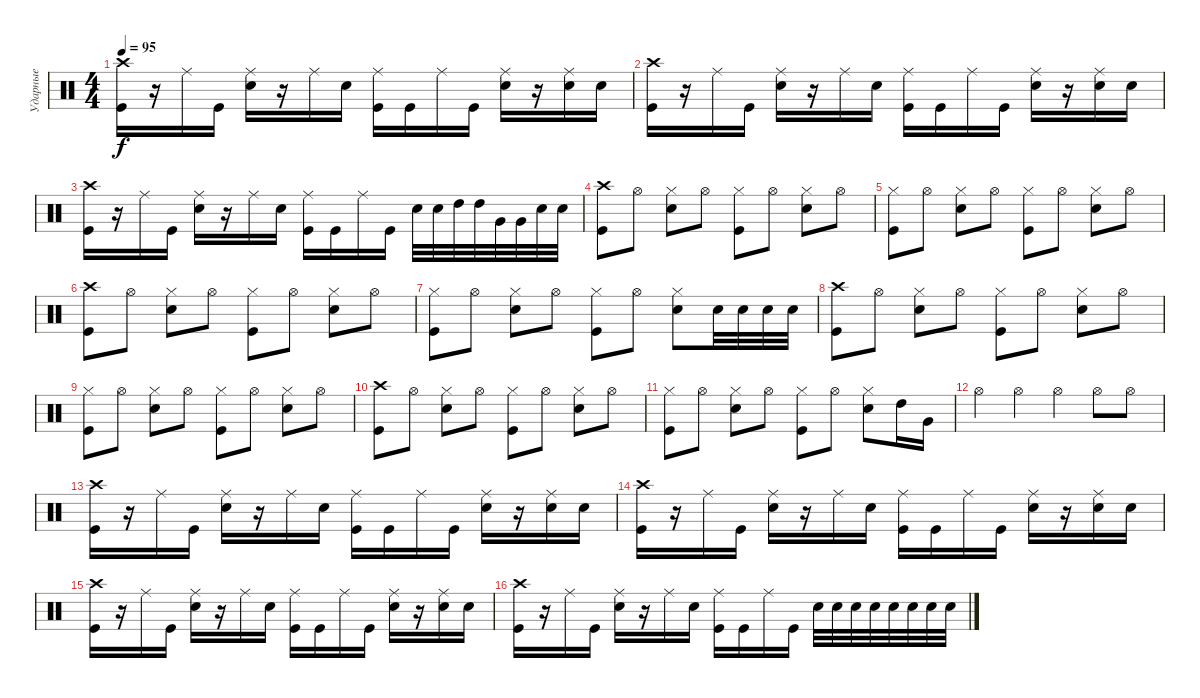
\track ("Ударные" "Ударные") {instrument percussion}
\staff {score}
\articulation defaults
\ts (4 4)
\tempo 95
\clef neutral
\ks c
("Kick (hit)" "Crash high (hit)").16{dy f} r.16 "Ride (middle)".16 "Kick (hit)".16 ("Ride (middle)" "Snare (hit) 2").16 r.16 "Ride (middle)".16 "Snare (hit) 2".16 ("Ride (middle)" "Kick (hit)").16 "Kick (hit)".16 "Ride (middle)".16 "Kick (hit)".16 ("Ride (middle)" "Snare (hit) 2").16 r.16 ("Ride (middle)" "Snare (hit) 2").16 "Snare (hit) 2".16 |
("Kick (hit)" "Crash high (hit)").16 r.16 "Ride (middle)".16 "Kick (hit)".16 ("Ride (middle)" "Snare (hit) 2").16 r.16 "Ride (middle)".16 "Snare (hit) 2".16 ("Ride (middle)" "Kick (hit)").16 "Kick (hit)".16 "Ride (middle)".16 "Kick (hit)".16 ("Ride (middle)" "Snare (hit) 2").16 r.16 ("Ride (middle)" "Snare (hit) 2").16 "Snare (hit) 2".16 |
("Kick (hit)" "Crash high (hit)").16 r.16 "Ride (middle)".16 "Kick (hit)".16 ("Ride (middle)" "Snare (hit) 2").16 r.16 "Ride (middle)".16 "Snare (hit) 2".16 ("Ride (middle)" "Kick (hit)").16 "Kick (hit)".16 "Ride (middle)".16 "Kick (hit)".16 "Snare (hit) 2".32 "Snare (hit) 2".32 "High Tom (hit)".32 "High Tom (hit)".32 "Very Low Tom (hit)".32 "Very Low Tom (hit)".32 "Snare (hit) 2".32 "Snare (hit) 2".32 |
("Kick (hit)" "Crash high (hit)").8 "Hi-Hat (open)".8 ("Snare (hit) 2" "Hi-Hat (closed)").8 "Hi-Hat (open)".8 ("Kick (hit)" "Hi-Hat (closed)").8 "Hi-Hat (open)".8 ("Snare (hit) 2" "Hi-Hat (closed)").8 "Hi-Hat (open)".8 |
("Kick (hit)" "Hi-Hat (closed)").8 "Hi-Hat (open)".8 ("Snare (hit) 2" "Hi-Hat (closed)").8 "Hi-Hat (open)".8 ("Kick (hit)" "Hi-Hat (closed)").8 "Hi-Hat (open)".8 ("Snare (hit) 2" "Hi-Hat (closed)").8 "Hi-Hat (open)".8 |
("Kick (hit)" "Crash high (hit)").8 "Hi-Hat (open)".8 ("Snare (hit) 2" "Hi-Hat (closed)").8 "Hi-Hat (open)".8 ("Kick (hit)" "Hi-Hat (closed)").8 "Hi-Hat (open)".8 ("Snare (hit) 2" "Hi-Hat (closed)").8 "Hi-Hat (open)".8 |
("Kick (hit)" "Hi-Hat (closed)").8 "Hi-Hat (open)".8 ("Snare (hit) 2" "Hi-Hat (closed)").8 "Hi-Hat (open)".8 ("Kick (hit)" "Hi-Hat (closed)").8 "Hi-Hat (open)".8 ("Snare (hit) 2" "Hi-Hat (closed)").8 "Snare (hit) 2".32 "Snare (hit) 2".32 "Snare (hit) 2".32 "Snare (hit) 2".32 |
("Kick (hit)" "Crash high (hit)").8 "Hi-Hat (open)".8 ("Snare (hit) 2" "Hi-Hat (closed)").8 "Hi-Hat (open)".8 ("Kick (hit)" "Hi-Hat (closed)").8 "Hi-Hat (open)".8 ("Snare (hit) 2" "Hi-Hat (closed)").8 "Hi-Hat (open)".8 |
("Kick (hit)" "Hi-Hat (closed)").8 "Hi-Hat (open)".8 ("Snare (hit) 2" "Hi-Hat (closed)").8 "Hi-Hat (open)".8 ("Kick (hit)" "Hi-Hat (closed)").8 "Hi-Hat (open)".8 ("Snare (hit) 2" "Hi-Hat (closed)").8 "Hi-Hat (open)".8 |
("Kick (hit)" "Crash high (hit)").8 "Hi-Hat (open)".8 ("Snare (hit) 2" "Hi-Hat (closed)").8 "Hi-Hat (open)".8 ("Kick (hit)" "Hi-Hat (closed)").8 "Hi-Hat (open)".8 ("Snare (hit) 2" "Hi-Hat (closed)").8 "Hi-Hat (open)".8 |
("Kick (hit)" "Hi-Hat (closed)").8 "Hi-Hat (open)".8 ("Snare (hit) 2" "Hi-Hat (closed)").8 "Hi-Hat (open)".8 ("Kick (hit)" "Hi-Hat (closed)").8 "Hi-Hat (open)".8 ("Snare (hit) 2" "Hi-Hat (closed)").8 "High Tom (hit)".16 "Very Low Tom (hit)".16 |
"Hi-Hat (open)".4 "Hi-Hat (open)".4 "Hi-Hat (open)".4 "Hi-Hat (open)".8 "Hi-Hat (open)".8 |
("Kick (hit)" "Crash high (hit)").16 r.16 "Ride (middle)".16 "Kick (hit)".16 ("Ride (middle)" "Snare (hit) 2").16 r.16 "Ride (middle)".16 "Snare (hit) 2".16 ("Ride (middle)" "Kick (hit)").16 "Kick (hit)".16 "Ride (middle)".16 "Kick (hit)".16 ("Ride (middle)" "Snare (hit) 2").16 r.16 ("Ride (middle)" "Snare (hit) 2").16 "Snare (hit) 2".16 |
("Kick (hit)" "Crash high (hit)").16 r.16 "Ride (middle)".16 "Kick (hit)".16 ("Ride (middle)" "Snare (hit) 2").16 r.16 "Ride (middle)".16 "Snare (hit) 2".16 ("Ride (middle)" "Kick (hit)").16 "Kick (hit)".16 "Ride (middle)".16 "Kick (hit)".16 ("Ride (middle)" "Snare (hit) 2").16 r.16 ("Ride (middle)" "Snare (hit) 2").16 "Snare (hit) 2".16 |
("Kick (hit)" "Crash high (hit)").16 r.16 "Ride (middle)".16 "Kick (hit)".16 ("Ride (middle)" "Snare (hit) 2").16 r.16 "Ride (middle)".16 "Snare (hit) 2".16 ("Ride (middle)" "Kick (hit)").16 "Kick (hit)".16 "Ride (middle)".16 "Kick (hit)".16 ("Ride (middle)" "Snare (hit) 2").16 r.16 ("Ride (middle)" "Snare (hit) 2").16 "Snare (hit) 2".16 |
("Kick (hit)" "Crash high (hit)").16 r.16 "Ride (middle)".16 "Kick (hit)".16 ("Ride (middle)" "Snare (hit) 2").16 r.16 "Ride (middle)".16 "Snare (hit) 2".16 ("Ride (middle)" "Kick (hit)").16 "Kick (hit)".16 "Ride (middle)".16 "Kick (hit)".16 "Snare (hit) 2".32 "Snare (hit) 2".32 "Snare (hit) 2".32 "Snare (hit) 2".32 "Snare (hit) 2".32 "Snare (hit) 2".32 "Snare (hit) 2".32 "Snare (hit) 2".32
